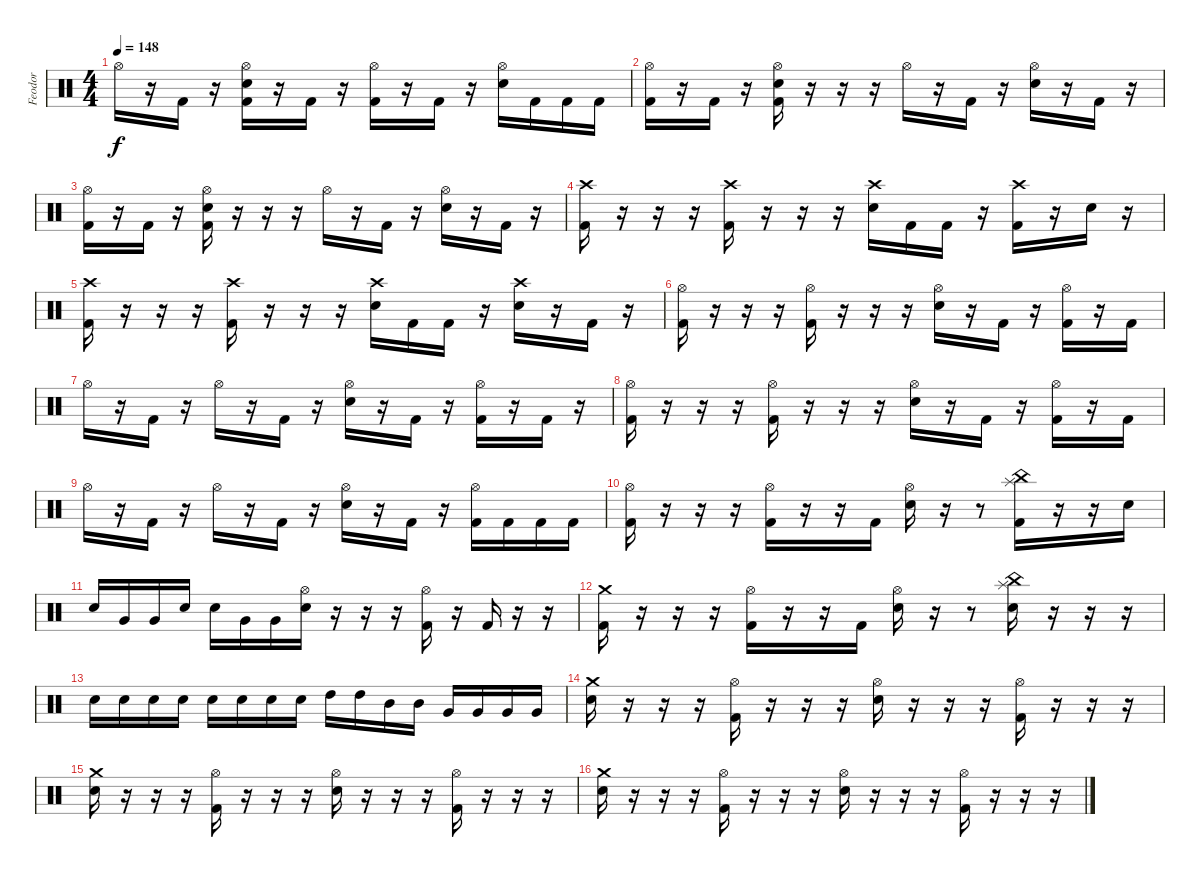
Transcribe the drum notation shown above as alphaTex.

\track ("Feodor" "Feodor") {instrument percussion}
\staff {score}
\articulation defaults
\ts (4 4)
\tempo 148
\clef neutral
\ks c "Hi-Hat (open)".16{dy f}
r.16 "Kick (hit) 2".16 r.16 ("Electric Snare (hit)" "Kick (hit) 2" "Hi-Hat (open)").16 r.16 "Kick (hit) 2".16 r.16 ("Kick (hit) 2" "Hi-Hat (open)").16 r.16 "Kick (hit) 2".16 r.16 ("Electric Snare (hit)" "Hi-Hat (open)").16 "Kick (hit) 2".16 "Kick (hit) 2".16 "Kick (hit) 2".16 |
("Hi-Hat (open)" "Kick (hit) 2").16 r.16 "Kick (hit) 2".16 r.16 ("Hi-Hat (open)" "Electric Snare (hit)" "Kick (hit) 2").16 r.16 r.16 r.16 "Hi-Hat (open)".16 r.16 "Kick (hit) 2".16 r.16 ("Electric Snare (hit)" "Hi-Hat (open)").16 r.16 "Kick (hit) 2".16 r.16 |
("Hi-Hat (open)" "Kick (hit) 2").16 r.16 "Kick (hit) 2".16 r.16 ("Hi-Hat (open)" "Electric Snare (hit)" "Kick (hit) 2").16 r.16 r.16 r.16 "Hi-Hat (open)".16 r.16 "Kick (hit) 2".16 r.16 ("Electric Snare (hit)" "Hi-Hat (open)").16 r.16 "Kick (hit) 2".16 r.16 |
("Crash high (hit)" "Kick (hit) 2").16 r.16 r.16 r.16 ("Crash high (hit)" "Kick (hit) 2").16 r.16 r.16 r.16 ("Crash high (hit)" "Electric Snare (hit)").16 "Kick (hit) 2".16 "Kick (hit) 2".16 r.16 ("Kick (hit) 2" "Crash high (hit)").16 r.16 "Electric Snare (hit)".16 r.16 |
("Crash high (hit)" "Kick (hit) 2").16 r.16 r.16 r.16 ("Crash high (hit)" "Kick (hit) 2").16 r.16 r.16 r.16 ("Crash high (hit)" "Electric Snare (hit)").16 "Kick (hit) 2".16 "Kick (hit) 2".16 r.16 ("Electric Snare (hit)" "Crash high (hit)").16 r.16 "Kick (hit) 2".16 r.16 |
("Hi-Hat (open)" "Kick (hit) 2").16 r.16 r.16 r.16 ("Hi-Hat (open)" "Kick (hit) 2").16 r.16 r.16 r.16 ("Hi-Hat (open)" "Electric Snare (hit)").16 r.16 "Kick (hit) 2".16 r.16 ("Kick (hit) 2" "Hi-Hat (open)").16 r.16 "Kick (hit) 2".16 |
"Hi-Hat (open)".16 r.16 "Kick (hit) 2".16 r.16 "Hi-Hat (open)".16 r.16 "Kick (hit) 2".16 r.16 ("Electric Snare (hit)" "Hi-Hat (open)").16 r.16 "Kick (hit) 2".16 r.16 ("Kick (hit) 2" "Hi-Hat (open)").16 r.16 "Kick (hit) 2".16 r.16 |
("Hi-Hat (open)" "Kick (hit) 2").16 r.16 r.16 r.16 ("Hi-Hat (open)" "Kick (hit) 2").16 r.16 r.16 r.16 ("Hi-Hat (open)" "Electric Snare (hit)").16 r.16 "Kick (hit) 2".16 r.16 ("Kick (hit) 2" "Hi-Hat (open)").16 r.16 "Kick (hit) 2".16 |
"Hi-Hat (open)".16 r.16 "Kick (hit) 2".16 r.16 "Hi-Hat (open)".16 r.16 "Kick (hit) 2".16 r.16 ("Electric Snare (hit)" "Hi-Hat (open)").16 r.16 "Kick (hit) 2".16 r.16 ("Kick (hit) 2" "Hi-Hat (open)").16 "Kick (hit) 2".16 "Kick (hit) 2".16 "Kick (hit) 2".16 |
("Kick (hit) 2" "Hi-Hat (open)").16 r.16 r.16 r.16 ("Kick (hit) 2" "Hi-Hat (open)").16 r.16 r.16 "Kick (hit) 2".16 ("Electric Snare (hit)" "Hi-Hat (open)").16 r.16 r.8 ("Splash (hit)" "China (hit)" "Kick (hit) 2").16 r.16 r.16 "Electric Snare (hit)".16 |
"Electric Snare (hit)".16 "Very Low Tom (hit)".16 "Very Low Tom (hit)".16 "Electric Snare (hit)".16 "Electric Snare (hit)".16 "Very Low Tom (hit)".16 "Very Low Tom (hit)".16 ("Electric Snare (hit)" "Hi-Hat (open)").16 r.16 r.16 r.16 ("Kick (hit) 2" "Hi-Hat (open)").16 r.16 "Kick (hit) 2".16 r.16 r.16 |
("Crash medium (hit)" "Kick (hit) 2").16 r.16 r.16 r.16 ("Kick (hit) 2" "Hi-Hat (open)").16 r.16 r.16 "Kick (hit) 2".16 ("Electric Snare (hit)" "Hi-Hat (open)").16 r.16 r.8 ("Electric Snare (hit)" "China (hit)" "Splash (hit)").16 r.16 r.16 r.16 |
"Electric Snare (hit)".16 "Electric Snare (hit)".16 "Electric Snare (hit)".16 "Electric Snare (hit)".16 "Electric Snare (hit)".16 "Electric Snare (hit)".16 "Electric Snare (hit)".16 "Electric Snare (hit)".16 "High Tom (hit)".16 "High Tom (hit)".16 "Mid Tom (hit)".16 "Mid Tom (hit)".16 "Very Low Tom (hit)".16 "Very Low Tom (hit)".16 "Very Low Tom (hit)".16 "Very Low Tom (hit)".16 |
("Crash medium (hit)" "Electric Snare (hit)").16 r.16 r.16 r.16 ("Hi-Hat (open)" "Kick (hit) 2").16 r.16 r.16 r.16 ("Hi-Hat (open)" "Electric Snare (hit)").16 r.16 r.16 r.16 ("Hi-Hat (open)" "Kick (hit) 2").16 r.16 r.16 r.16 |
("Crash medium (hit)" "Electric Snare (hit)").16 r.16 r.16 r.16 ("Hi-Hat (open)" "Kick (hit) 2").16 r.16 r.16 r.16 ("Hi-Hat (open)" "Electric Snare (hit)").16 r.16 r.16 r.16 ("Hi-Hat (open)" "Kick (hit) 2").16 r.16 r.16 r.16 |
("Crash medium (hit)" "Electric Snare (hit)").16 r.16 r.16 r.16 ("Hi-Hat (open)" "Kick (hit) 2").16 r.16 r.16 r.16 ("Hi-Hat (open)" "Electric Snare (hit)").16 r.16 r.16 r.16 ("Hi-Hat (open)" "Kick (hit) 2").16 r.16 r.16 r.16
